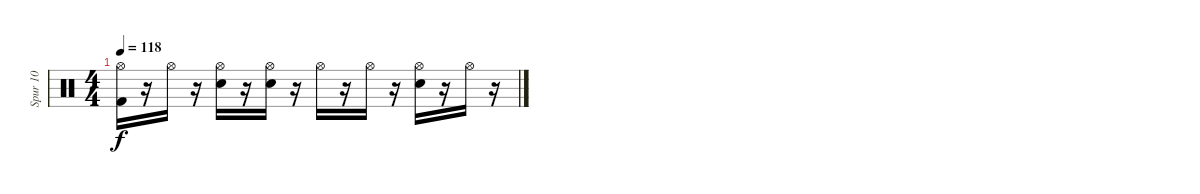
\track ("Spur 10" "Spur 10") {instrument percussion}
\staff {score}
\articulation defaults
\ts (4 4)
\tempo 118
\clef neutral
\ks c
("Hi-Hat (open)" "Kick (hit) 2").16{dy f volume 4} r.16 "Hi-Hat (open)".16{volume 4} r.16 ("Snare (hit) 2" "Hi-Hat (open)").16{volume 3} r.16 ("Snare (hit) 2" "Hi-Hat (open)").16{volume 3} r.16 "Hi-Hat (open)".16{volume 2} r.16 "Hi-Hat (open)".16{volume 2} r.16 ("Hi-Hat (open)" "Snare (hit) 2").16{volume 1} r.16 "Hi-Hat (open)".16{volume 1} r.16
